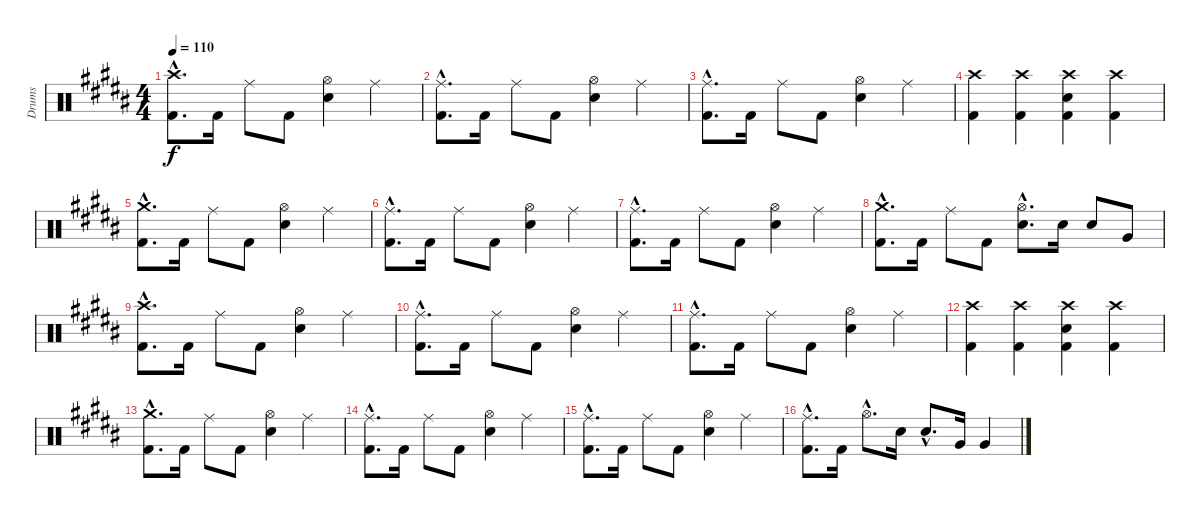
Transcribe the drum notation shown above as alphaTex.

\track ("Drums" "Drums") {instrument percussion}
\staff {score}
\articulation defaults
\ts (4 4)
\section ("" "")
\tempo 110
\clef neutral
\ks b
("Crash high (hit)"{hac} "Kick (hit) 2"{hac}).8{d dy f} "Kick (hit) 2".16 "Ride (middle)".8 "Kick (hit) 2".8 ("Hi-Hat (open)" "Electric Snare (hit)").4 "Ride (middle)".4 |
("Ride (middle)"{hac} "Kick (hit) 2"{hac}).8{d} "Kick (hit) 2".16 "Ride (middle)".8 "Kick (hit) 2".8 ("Hi-Hat (open)" "Electric Snare (hit)").4 "Ride (middle)".4 |
("Ride (middle)"{hac} "Kick (hit) 2"{hac}).8{d} "Kick (hit) 2".16 "Ride (middle)".8 "Kick (hit) 2".8 ("Hi-Hat (open)" "Electric Snare (hit)").4 "Ride (middle)".4 |
("Crash high (hit)" "Kick (hit) 2").4 ("Crash high (hit)" "Kick (hit) 2").4 ("Crash high (hit)" "Electric Snare (hit)" "Kick (hit) 2").4 ("Crash high (hit)" "Kick (hit) 2").4 |
("Crash medium (hit)"{hac} "Kick (hit) 2"{hac}).8{d} "Kick (hit) 2".16 "Ride (middle)".8 "Kick (hit) 2".8 ("Hi-Hat (open)" "Electric Snare (hit)").4 "Ride (middle)".4 |
("Ride (middle)"{hac} "Kick (hit) 2"{hac}).8{d} "Kick (hit) 2".16 "Ride (middle)".8 "Kick (hit) 2".8 ("Hi-Hat (open)" "Electric Snare (hit)").4 "Ride (middle)".4 |
("Ride (middle)"{hac} "Kick (hit) 2"{hac}).8{d} "Kick (hit) 2".16 "Ride (middle)".8 "Kick (hit) 2".8 ("Hi-Hat (open)" "Electric Snare (hit)").4 "Ride (middle)".4 |
("Crash medium (hit)"{hac} "Kick (hit) 2"{hac}).8{d} "Kick (hit) 2".16 "Ride (middle)".8 "Kick (hit) 2".8 ("Hi-Hat (open)"{hac} "Electric Snare (hit)"{hac}).8{d} "Electric Snare (hit)".16 "Electric Snare (hit)".8 "Very Low Tom (hit)".8 |
("Crash high (hit)"{hac} "Kick (hit) 2"{hac}).8{d} "Kick (hit) 2".16 "Ride (middle)".8 "Kick (hit) 2".8 ("Hi-Hat (open)" "Electric Snare (hit)").4 "Ride (middle)".4 |
("Ride (middle)"{hac} "Kick (hit) 2"{hac}).8{d} "Kick (hit) 2".16 "Ride (middle)".8 "Kick (hit) 2".8 ("Hi-Hat (open)" "Electric Snare (hit)").4 "Ride (middle)".4 |
("Ride (middle)"{hac} "Kick (hit) 2"{hac}).8{d} "Kick (hit) 2".16 "Ride (middle)".8 "Kick (hit) 2".8 ("Hi-Hat (open)" "Electric Snare (hit)").4 "Ride (middle)".4 |
("Crash high (hit)" "Kick (hit) 2").4 ("Crash high (hit)" "Kick (hit) 2").4 ("Crash high (hit)" "Electric Snare (hit)" "Kick (hit) 2").4 ("Crash high (hit)" "Kick (hit) 2").4 |
("Crash medium (hit)"{hac} "Kick (hit) 2"{hac}).8{d} "Kick (hit) 2".16 "Ride (middle)".8 "Kick (hit) 2".8 ("Hi-Hat (open)" "Electric Snare (hit)").4 "Ride (middle)".4 |
("Ride (middle)"{hac} "Kick (hit) 2"{hac}).8{d} "Kick (hit) 2".16 "Ride (middle)".8 "Kick (hit) 2".8 ("Hi-Hat (open)" "Electric Snare (hit)").4 "Ride (middle)".4 |
("Ride (middle)"{hac} "Kick (hit) 2"{hac}).8{d} "Kick (hit) 2".16 "Ride (middle)".8 "Kick (hit) 2".8 ("Hi-Hat (open)" "Electric Snare (hit)").4 "Ride (middle)".4 |
("Ride (middle)"{hac} "Kick (hit) 2"{hac}).8{d} "Kick (hit) 2".16 "Hi-Hat (open)"{hac}.8{d} "Electric Snare (hit)".16 "Electric Snare (hit)"{hac}.8{d} "Very Low Tom (hit)".16 "Very Low Tom (hit)".4
